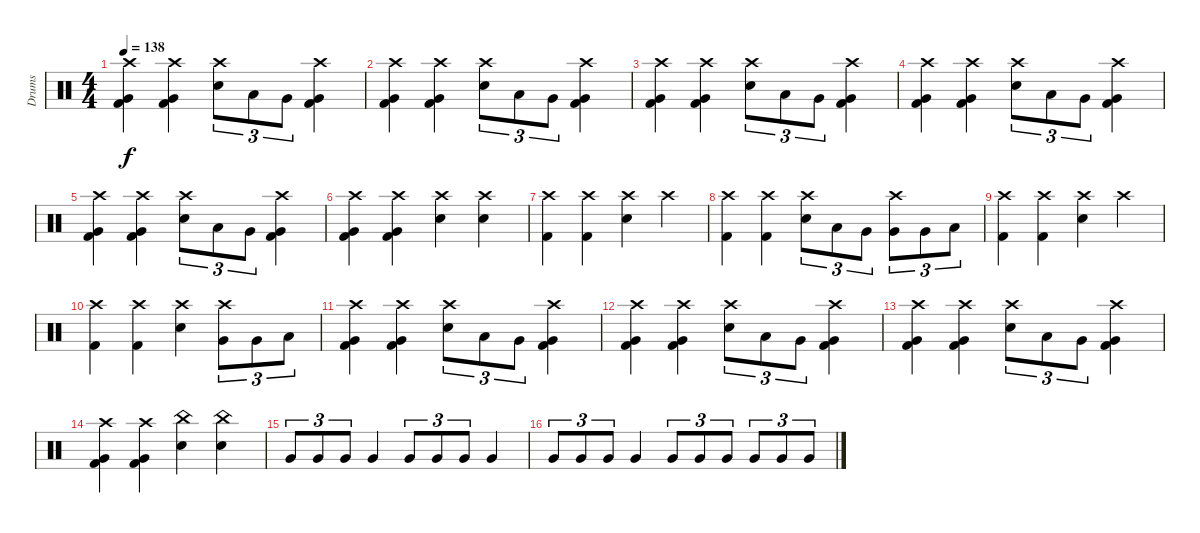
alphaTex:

\track ("Drums" "Drums") {instrument percussion}
\staff {score}
\articulation defaults
\ts (4 4)
\tempo 138
\clef neutral
\ks c
("Crash high (hit)" "Very Low Tom (hit)" "Kick (hit) 2").4{dy f} ("Crash high (hit)" "Very Low Tom (hit)" "Kick (hit) 2").4 ("Crash high (hit)" "Snare (hit) 2").8{tu (3 2)} "Low Tom (hit)".8{tu (3 2)} "Very Low Tom (hit)".8{tu (3 2)} ("Crash high (hit)" "Very Low Tom (hit)" "Kick (hit) 2").4 |
("Crash high (hit)" "Very Low Tom (hit)" "Kick (hit) 2").4 ("Crash high (hit)" "Very Low Tom (hit)" "Kick (hit) 2").4 ("Crash high (hit)" "Snare (hit) 2").8{tu (3 2)} "Low Tom (hit)".8{tu (3 2)} "Very Low Tom (hit)".8{tu (3 2)} ("Crash high (hit)" "Very Low Tom (hit)" "Kick (hit) 2").4 |
("Crash high (hit)" "Very Low Tom (hit)" "Kick (hit) 2").4 ("Crash high (hit)" "Very Low Tom (hit)" "Kick (hit) 2").4 ("Crash high (hit)" "Snare (hit) 2").8{tu (3 2)} "Low Tom (hit)".8{tu (3 2)} "Very Low Tom (hit)".8{tu (3 2)} ("Crash high (hit)" "Very Low Tom (hit)" "Kick (hit) 2").4 |
("Crash high (hit)" "Very Low Tom (hit)" "Kick (hit) 2").4 ("Crash high (hit)" "Very Low Tom (hit)" "Kick (hit) 2").4 ("Crash high (hit)" "Snare (hit) 2").8{tu (3 2)} "Low Tom (hit)".8{tu (3 2)} "Very Low Tom (hit)".8{tu (3 2)} ("Crash high (hit)" "Very Low Tom (hit)" "Kick (hit) 2").4 |
("Crash high (hit)" "Very Low Tom (hit)" "Kick (hit) 2").4 ("Crash high (hit)" "Very Low Tom (hit)" "Kick (hit) 2").4 ("Crash high (hit)" "Snare (hit) 2").8{tu (3 2)} "Low Tom (hit)".8{tu (3 2)} "Very Low Tom (hit)".8{tu (3 2)} ("Crash high (hit)" "Very Low Tom (hit)" "Kick (hit) 2").4 |
("Crash high (hit)" "Very Low Tom (hit)" "Kick (hit) 2").4 ("Crash high (hit)" "Very Low Tom (hit)" "Kick (hit) 2").4 ("Crash high (hit)" "Snare (hit) 2").4 ("Crash high (hit)" "Snare (hit) 2").4 |
("Crash high (hit)" "Kick (hit) 2").4 ("Crash high (hit)" "Kick (hit) 2").4 ("Crash high (hit)" "Snare (hit) 2").4 "Crash high (hit)".4 |
("Crash high (hit)" "Kick (hit) 2").4 ("Crash high (hit)" "Kick (hit) 2").4 ("Crash high (hit)" "Snare (hit) 2").8{tu (3 2)} "Low Tom (hit)".8{tu (3 2)} "Very Low Tom (hit)".8{tu (3 2)} ("Crash high (hit)" "Very Low Tom (hit)").8{tu (3 2)} "Very Low Tom (hit)".8{tu (3 2)} "Low Floor Tom (hit)".8{tu (3 2)} |
("Crash high (hit)" "Kick (hit) 2").4 ("Crash high (hit)" "Kick (hit) 2").4 ("Crash high (hit)" "Snare (hit) 2").4 "Crash high (hit)".4 |
("Crash high (hit)" "Kick (hit) 2").4 ("Crash high (hit)" "Kick (hit) 2").4 ("Crash high (hit)" "Snare (hit) 2").4 ("Crash high (hit)" "Very Low Tom (hit)").8{tu (3 2)} "Very Low Tom (hit)".8{tu (3 2)} "Low Floor Tom (hit)".8{tu (3 2)} |
("Crash high (hit)" "Very Low Tom (hit)" "Kick (hit) 2").4 ("Crash high (hit)" "Very Low Tom (hit)" "Kick (hit) 2").4 ("Crash high (hit)" "Snare (hit) 2").8{tu (3 2)} "Low Tom (hit)".8{tu (3 2)} "Very Low Tom (hit)".8{tu (3 2)} ("Crash high (hit)" "Very Low Tom (hit)" "Kick (hit) 2").4 |
("Crash high (hit)" "Very Low Tom (hit)" "Kick (hit) 2").4 ("Crash high (hit)" "Very Low Tom (hit)" "Kick (hit) 2").4 ("Crash high (hit)" "Snare (hit) 2").8{tu (3 2)} "Low Tom (hit)".8{tu (3 2)} "Very Low Tom (hit)".8{tu (3 2)} ("Crash high (hit)" "Very Low Tom (hit)" "Kick (hit) 2").4 |
("Crash high (hit)" "Very Low Tom (hit)" "Kick (hit) 2").4 ("Crash high (hit)" "Very Low Tom (hit)" "Kick (hit) 2").4 ("Crash high (hit)" "Snare (hit) 2").8{tu (3 2)} "Low Tom (hit)".8{tu (3 2)} "Very Low Tom (hit)".8{tu (3 2)} ("Crash high (hit)" "Very Low Tom (hit)" "Kick (hit) 2").4 |
("Crash high (hit)" "Very Low Tom (hit)" "Kick (hit) 2").4 ("Crash high (hit)" "Very Low Tom (hit)" "Kick (hit) 2").4 ("China (hit)" "Snare (hit) 2").4 ("China (hit)" "Snare (hit) 2").4 |
"Very Low Tom (hit)".8{tu (3 2)} "Very Low Tom (hit)".8{tu (3 2)} "Very Low Tom (hit)".8{tu (3 2)} "Very Low Tom (hit)".4 "Very Low Tom (hit)".8{tu (3 2)} "Very Low Tom (hit)".8{tu (3 2)} "Very Low Tom (hit)".8{tu (3 2)} "Very Low Tom (hit)".4 |
"Very Low Tom (hit)".8{tu (3 2)} "Very Low Tom (hit)".8{tu (3 2)} "Very Low Tom (hit)".8{tu (3 2)} "Very Low Tom (hit)".4 "Very Low Tom (hit)".8{tu (3 2)} "Very Low Tom (hit)".8{tu (3 2)} "Very Low Tom (hit)".8{tu (3 2)} "Very Low Tom (hit)".8{tu (3 2)} "Very Low Tom (hit)".8{tu (3 2)} "Very Low Tom (hit)".8{tu (3 2)}
